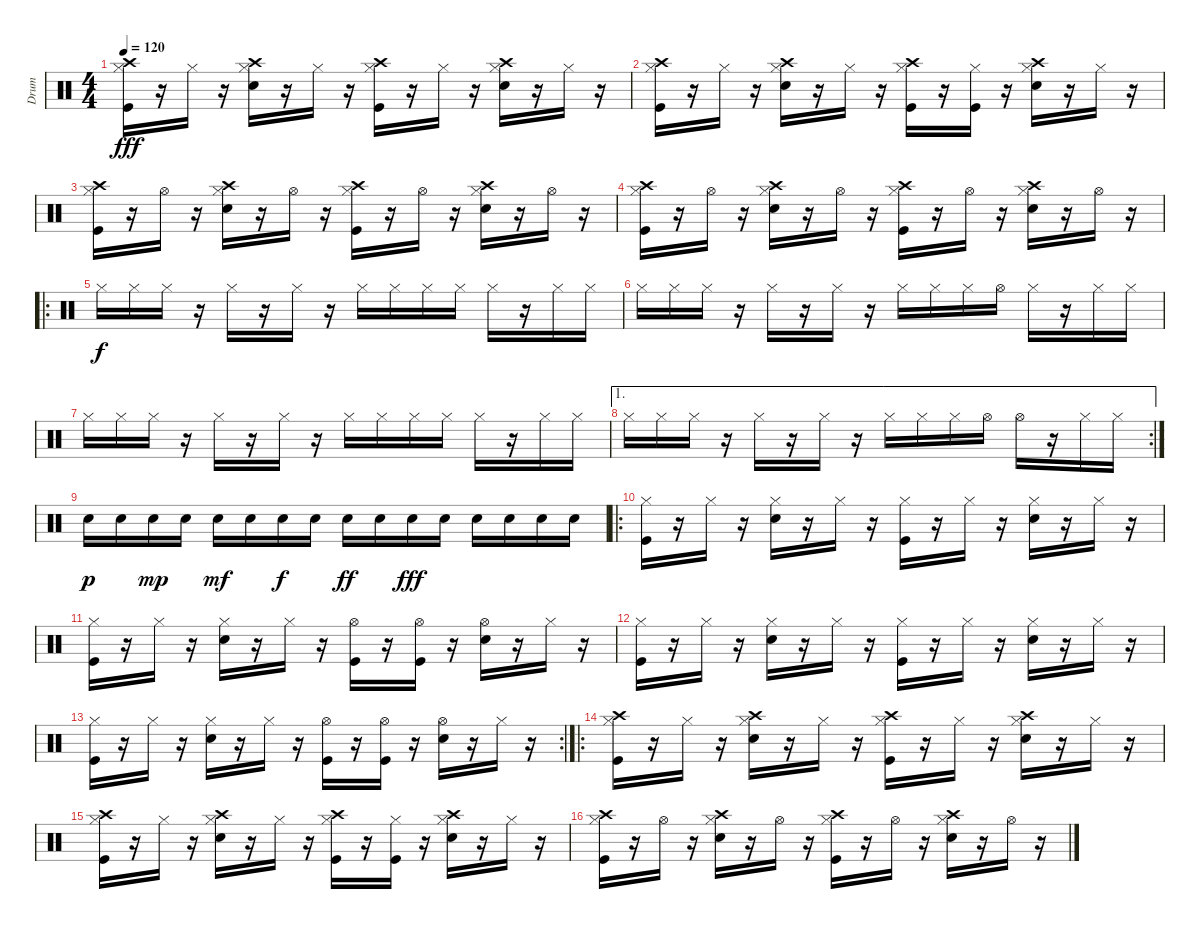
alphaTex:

\track ("Drum" "Drum") {instrument percussion}
\staff {score}
\articulation defaults
\ts (4 4)
\tempo 120
\clef neutral
\ks c
("Crash high (hit)" "Hi-Hat (closed)" "Kick (hit)").16{dy fff} r.16 "Hi-Hat (closed)".16 r.16 ("Crash high (hit)" "Hi-Hat (closed)" "Electric Snare (hit)").16 r.16 "Hi-Hat (closed)".16 r.16 ("Crash high (hit)" "Hi-Hat (closed)" "Kick (hit)").16 r.16 "Hi-Hat (closed)".16 r.16 ("Crash high (hit)" "Hi-Hat (closed)" "Electric Snare (hit)").16 r.16 "Hi-Hat (closed)".16 r.16 |
("Crash high (hit)" "Hi-Hat (closed)" "Kick (hit)").16 r.16 "Hi-Hat (closed)".16 r.16 ("Crash high (hit)" "Hi-Hat (closed)" "Electric Snare (hit)").16 r.16 "Hi-Hat (closed)".16 r.16 ("Crash high (hit)" "Hi-Hat (closed)" "Kick (hit)").16 r.16 ("Hi-Hat (closed)" "Kick (hit)").16 r.16 ("Crash high (hit)" "Hi-Hat (closed)" "Electric Snare (hit)").16 r.16 "Hi-Hat (closed)".16 r.16 |
("Crash high (hit)" "Hi-Hat (closed)" "Kick (hit)").16 r.16 "Hi-Hat (open)".16 r.16 ("Crash high (hit)" "Hi-Hat (closed)" "Electric Snare (hit)").16 r.16 "Hi-Hat (open)".16 r.16 ("Crash high (hit)" "Hi-Hat (closed)" "Kick (hit)").16 r.16 "Hi-Hat (open)".16 r.16 ("Crash high (hit)" "Hi-Hat (closed)" "Electric Snare (hit)").16 r.16 "Hi-Hat (open)".16 r.16 |
("Crash high (hit)" "Hi-Hat (closed)" "Kick (hit)").16 r.16 "Hi-Hat (open)".16 r.16 ("Crash high (hit)" "Hi-Hat (closed)" "Electric Snare (hit)").16 r.16 "Hi-Hat (open)".16 r.16 ("Crash high (hit)" "Hi-Hat (closed)" "Kick (hit)").16 r.16 "Hi-Hat (open)".16 r.16 ("Crash high (hit)" "Hi-Hat (closed)" "Electric Snare (hit)").16 r.16 "Hi-Hat (open)".16 r.16 |
\ro "Hi-Hat (closed)".16{dy f} "Hi-Hat (closed)".16 "Hi-Hat (closed)".16
r.16 "Hi-Hat (closed)".16 r.16 "Hi-Hat (closed)".16 r.16 "Hi-Hat (closed)".16 "Hi-Hat (closed)".16 "Hi-Hat (closed)".16 "Hi-Hat (closed)".16 "Hi-Hat (closed)".16 r.16 "Hi-Hat (closed)".16 "Hi-Hat (closed)".16 |
"Hi-Hat (closed)".16 "Hi-Hat (closed)".16 "Hi-Hat (closed)".16 r.16 "Hi-Hat (closed)".16 r.16 "Hi-Hat (closed)".16 r.16 "Hi-Hat (closed)".16 "Hi-Hat (closed)".16 "Hi-Hat (closed)".16 "Hi-Hat (open)".16 "Hi-Hat (closed)".16 r.16 "Hi-Hat (closed)".16 "Hi-Hat (closed)".16 |
"Hi-Hat (closed)".16 "Hi-Hat (closed)".16 "Hi-Hat (closed)".16 r.16 "Hi-Hat (closed)".16 r.16 "Hi-Hat (closed)".16 r.16 "Hi-Hat (closed)".16 "Hi-Hat (closed)".16 "Hi-Hat (closed)".16 "Hi-Hat (closed)".16 "Hi-Hat (closed)".16 r.16 "Hi-Hat (closed)".16 "Hi-Hat (closed)".16 |
\ae 1
\rc 2 "Hi-Hat (closed)".16 "Hi-Hat (closed)".16 "Hi-Hat (closed)".16
r.16 "Hi-Hat (closed)".16 r.16 "Hi-Hat (closed)".16 r.16 "Hi-Hat (closed)".16 "Hi-Hat (closed)".16 "Hi-Hat (closed)".16 "Hi-Hat (open)".16 "Hi-Hat (open)".16 r.16 "Hi-Hat (closed)".16 "Hi-Hat (closed)".16 |
"Electric Snare (hit)".16{dy p} "Electric Snare (hit)".16 "Electric Snare (hit)".16{dy mp} "Electric Snare (hit)".16 "Electric Snare (hit)".16{dy mf} "Electric Snare (hit)".16 "Electric Snare (hit)".16{dy f} "Electric Snare (hit)".16 "Electric Snare (hit)".16{dy ff} "Electric Snare (hit)".16 "Electric Snare (hit)".16{dy fff} "Electric Snare (hit)".16 "Electric Snare (hit)".16 "Electric Snare (hit)".16 "Electric Snare (hit)".16 "Electric Snare (hit)".16 |
\ro
("Hi-Hat (closed)" "Kick (hit)").16 r.16 "Hi-Hat (closed)".16 r.16 ("Hi-Hat (closed)" "Electric Snare (hit)").16 r.16 "Hi-Hat (closed)".16 r.16 ("Hi-Hat (closed)" "Kick (hit)").16 r.16 "Hi-Hat (closed)".16 r.16 ("Hi-Hat (closed)" "Electric Snare (hit)").16 r.16 "Hi-Hat (closed)".16 r.16 |
("Hi-Hat (closed)" "Kick (hit)").16 r.16 "Hi-Hat (closed)".16 r.16 ("Hi-Hat (closed)" "Electric Snare (hit)").16 r.16 "Hi-Hat (closed)".16 r.16 ("Hi-Hat (open)" "Kick (hit)").16 r.16 ("Hi-Hat (open)" "Kick (hit)").16 r.16 ("Hi-Hat (open)" "Electric Snare (hit)").16 r.16 "Hi-Hat (closed)".16 r.16 |
("Hi-Hat (closed)" "Kick (hit)").16 r.16 "Hi-Hat (closed)".16 r.16 ("Hi-Hat (closed)" "Electric Snare (hit)").16 r.16 "Hi-Hat (closed)".16 r.16 ("Hi-Hat (closed)" "Kick (hit)").16 r.16 "Hi-Hat (closed)".16 r.16 ("Hi-Hat (closed)" "Electric Snare (hit)").16 r.16 "Hi-Hat (closed)".16 r.16 |
\rc 2
("Hi-Hat (closed)" "Kick (hit)").16 r.16 "Hi-Hat (closed)".16 r.16 ("Hi-Hat (closed)" "Electric Snare (hit)").16 r.16 "Hi-Hat (closed)".16 r.16 ("Hi-Hat (open)" "Kick (hit)").16 r.16 ("Hi-Hat (open)" "Kick (hit)").16 r.16 ("Hi-Hat (open)" "Electric Snare (hit)").16 r.16 "Hi-Hat (closed)".16 r.16 |
\ro
("Crash high (hit)" "Hi-Hat (closed)" "Kick (hit)").16 r.16 "Hi-Hat (closed)".16 r.16 ("Crash high (hit)" "Hi-Hat (closed)" "Electric Snare (hit)").16 r.16 "Hi-Hat (closed)".16 r.16 ("Crash high (hit)" "Hi-Hat (closed)" "Kick (hit)").16 r.16 "Hi-Hat (closed)".16 r.16 ("Crash high (hit)" "Hi-Hat (closed)" "Electric Snare (hit)").16 r.16 "Hi-Hat (closed)".16 r.16 |
("Crash high (hit)" "Hi-Hat (closed)" "Kick (hit)").16 r.16 "Hi-Hat (closed)".16 r.16 ("Crash high (hit)" "Hi-Hat (closed)" "Electric Snare (hit)").16 r.16 "Hi-Hat (closed)".16 r.16 ("Crash high (hit)" "Hi-Hat (closed)" "Kick (hit)").16 r.16 ("Hi-Hat (closed)" "Kick (hit)").16 r.16 ("Crash high (hit)" "Hi-Hat (closed)" "Electric Snare (hit)").16 r.16 "Hi-Hat (closed)".16 r.16 |
("Crash high (hit)" "Hi-Hat (closed)" "Kick (hit)").16 r.16 "Hi-Hat (open)".16 r.16 ("Crash high (hit)" "Hi-Hat (closed)" "Electric Snare (hit)").16 r.16 "Hi-Hat (open)".16 r.16 ("Crash high (hit)" "Hi-Hat (closed)" "Kick (hit)").16 r.16 "Hi-Hat (open)".16 r.16 ("Crash high (hit)" "Hi-Hat (closed)" "Electric Snare (hit)").16 r.16 "Hi-Hat (open)".16 r.16
